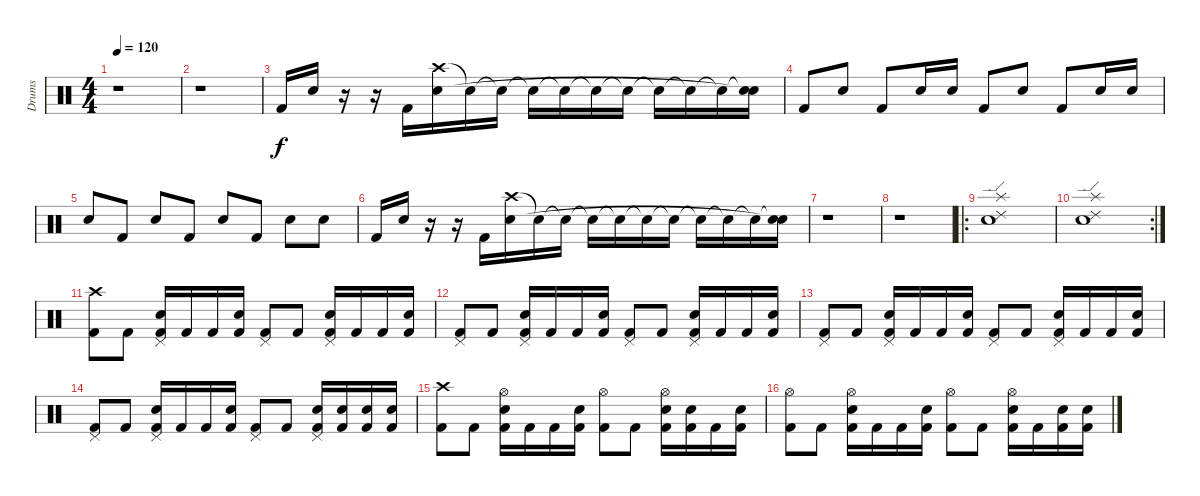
\track ("Drums" "Drums") {instrument percussion}
\staff {score}
\articulation defaults
\ts (4 4)
\tempo 120
\clef neutral
\ks c
r.1{dy f} |
r.1 |
"Kick (hit) 2".16 "Electric Snare (hit)".16 r.16 r.16 "Kick (hit) 2".16 ("Crash high (hit)" "Electric Snare (hit)").16 "Snare (hit)"{t}.16 "Snare (hit)"{t}.16 "Snare (hit)"{t}.16 "Snare (hit)"{t}.16 "Snare (hit)"{t}.16 "Snare (hit)"{t}.16 "Snare (hit)"{t}.16 "Snare (hit)"{t}.16 "Snare (hit)"{t}.16 ("Snare (hit)"{t} "Snare (hit)"{t}).16 |
"Kick (hit) 2".8 "Electric Snare (hit)".8 "Kick (hit) 2".8 "Electric Snare (hit)".16 "Electric Snare (hit)".16 "Kick (hit) 2".8 "Electric Snare (hit)".8 "Kick (hit) 2".8 "Electric Snare (hit)".16 "Electric Snare (hit)".16 |
"Electric Snare (hit)".8 "Kick (hit) 2".8 "Electric Snare (hit)".8 "Kick (hit) 2".8 "Electric Snare (hit)".8 "Kick (hit) 2".8 "Electric Snare (hit)".8 "Electric Snare (hit)".8 |
"Kick (hit) 2".16 "Electric Snare (hit)".16 r.16 r.16 "Kick (hit) 2".16 ("Crash high (hit)" "Electric Snare (hit)").16 "Snare (hit)"{t}.16 "Snare (hit)"{t}.16 "Snare (hit)"{t}.16 "Snare (hit)"{t}.16 "Snare (hit)"{t}.16 "Snare (hit)"{t}.16 "Snare (hit)"{t}.16 "Snare (hit)"{t}.16 "Snare (hit)"{t}.16 ("Snare (hit)"{t} "Snare (hit)"{t}).16 |
r.1 |
r.1 |
\ro
("Splash (hit)" "Ride (edge) 2" "Electric Snare (hit)").1 |
\rc 2
("Splash (hit)" "Ride (edge) 2" "Electric Snare (hit)").1 |
("Crash high (hit)" "Kick (hit) 2").8 "Kick (hit) 2".8 ("Pedal Hi-Hat (hit)" "Electric Snare (hit)" "Kick (hit) 2").16 "Kick (hit) 2".16 "Kick (hit) 2".16 ("Electric Snare (hit)" "Kick (hit) 2").16 ("Pedal Hi-Hat (hit)" "Kick (hit) 2").8 "Kick (hit) 2".8 ("Pedal Hi-Hat (hit)" "Electric Snare (hit)" "Kick (hit) 2").16 "Kick (hit) 2".16 "Kick (hit) 2".16 ("Electric Snare (hit)" "Kick (hit) 2").16 |
("Pedal Hi-Hat (hit)" "Kick (hit) 2").8 "Kick (hit) 2".8 ("Pedal Hi-Hat (hit)" "Electric Snare (hit)" "Kick (hit) 2").16 "Kick (hit) 2".16 "Kick (hit) 2".16 ("Electric Snare (hit)" "Kick (hit) 2").16 ("Pedal Hi-Hat (hit)" "Kick (hit) 2").8 "Kick (hit) 2".8 ("Pedal Hi-Hat (hit)" "Electric Snare (hit)" "Kick (hit) 2").16 "Kick (hit) 2".16 "Kick (hit) 2".16 ("Electric Snare (hit)" "Kick (hit) 2").16 |
("Pedal Hi-Hat (hit)" "Kick (hit) 2").8 "Kick (hit) 2".8 ("Pedal Hi-Hat (hit)" "Electric Snare (hit)" "Kick (hit) 2").16 "Kick (hit) 2".16 "Kick (hit) 2".16 ("Electric Snare (hit)" "Kick (hit) 2").16 ("Pedal Hi-Hat (hit)" "Kick (hit) 2").8 "Kick (hit) 2".8 ("Pedal Hi-Hat (hit)" "Electric Snare (hit)" "Kick (hit) 2").16 "Kick (hit) 2".16 "Kick (hit) 2".16 ("Electric Snare (hit)" "Kick (hit) 2").16 |
("Pedal Hi-Hat (hit)" "Kick (hit) 2").8 "Kick (hit) 2".8 ("Pedal Hi-Hat (hit)" "Electric Snare (hit)" "Kick (hit) 2").16 "Kick (hit) 2".16 "Kick (hit) 2".16 ("Electric Snare (hit)" "Kick (hit) 2").16 ("Pedal Hi-Hat (hit)" "Kick (hit) 2").8 "Kick (hit) 2".8 ("Pedal Hi-Hat (hit)" "Electric Snare (hit)" "Kick (hit) 2").16 ("Electric Snare (hit)" "Kick (hit) 2").16 ("Electric Snare (hit)" "Kick (hit) 2").16 ("Electric Snare (hit)" "Kick (hit) 2").16 |
("Crash high (hit)" "Kick (hit) 2").8 "Kick (hit) 2".8 ("Hi-Hat (open)" "Electric Snare (hit)" "Kick (hit) 2").16 "Kick (hit) 2".16 "Kick (hit) 2".16 ("Electric Snare (hit)" "Kick (hit) 2").16 ("Hi-Hat (open)" "Kick (hit) 2").8 "Kick (hit) 2".8 ("Hi-Hat (open)" "Electric Snare (hit)" "Kick (hit) 2").16 ("Electric Snare (hit)" "Kick (hit) 2").16 "Kick (hit) 2".16 ("Electric Snare (hit)" "Kick (hit) 2").16 |
("Hi-Hat (open)" "Kick (hit) 2").8 "Kick (hit) 2".8 ("Hi-Hat (open)" "Electric Snare (hit)" "Kick (hit) 2").16 "Kick (hit) 2".16 "Kick (hit) 2".16 ("Electric Snare (hit)" "Kick (hit) 2").16 ("Hi-Hat (open)" "Kick (hit) 2").8 "Kick (hit) 2".8 ("Hi-Hat (open)" "Electric Snare (hit)" "Kick (hit) 2").16 "Kick (hit) 2".16 ("Electric Snare (hit)" "Kick (hit) 2").16 ("Electric Snare (hit)" "Kick (hit) 2").16
